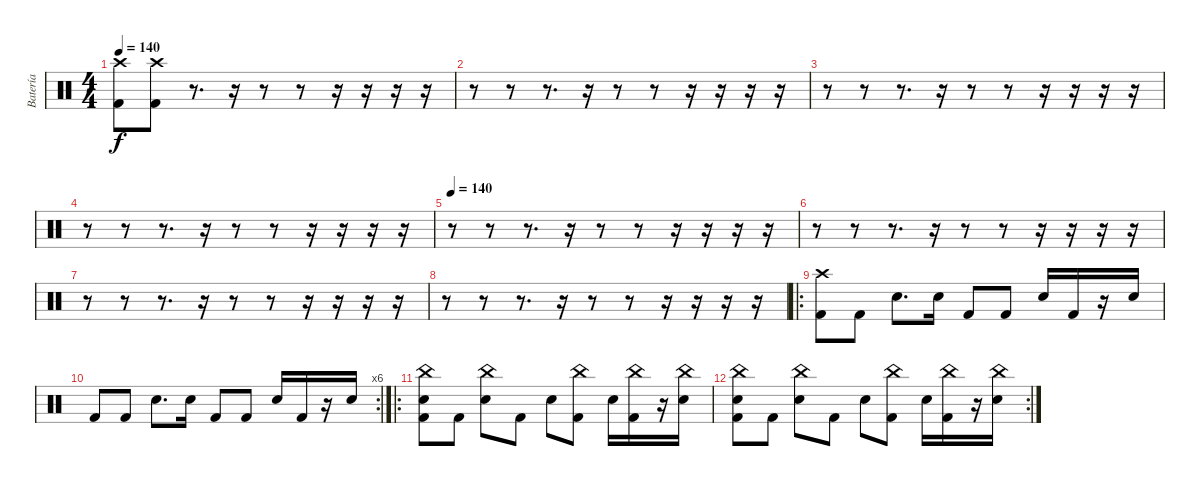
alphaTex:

\track ("Batería" "Batería") {instrument percussion}
\staff {score}
\articulation defaults
\ts (4 4)
\tempo 140
\clef neutral
\ks c
("Crash high (hit)" "Kick (hit) 2").8{dy f} ("Kick (hit) 2" "Crash high (hit)").8 r.8{d} r.16 r.8 r.8 r.16 r.16 r.16 r.16 |
r.8 r.8 r.8{d} r.16 r.8 r.8 r.16 r.16 r.16 r.16 |
r.8 r.8 r.8{d} r.16 r.8 r.8 r.16 r.16 r.16 r.16 |
r.8 r.8 r.8{d} r.16 r.8 r.8 r.16 r.16 r.16 r.16 |
\tempo 140
r.8 r.8 r.8{d} r.16 r.8 r.8 r.16 r.16 r.16 r.16 |
r.8 r.8 r.8{d} r.16 r.8 r.8 r.16 r.16 r.16 r.16 |
r.8 r.8 r.8{d} r.16 r.8 r.8 r.16 r.16 r.16 r.16 |
r.8 r.8 r.8{d} r.16 r.8 r.8 r.16 r.16 r.16 r.16 |
\ro
("Kick (hit) 2" "Crash high (hit)").8 "Kick (hit) 2".8 "Electric Snare (hit)".8{d} "Electric Snare (hit)".16 "Kick (hit) 2".8 "Kick (hit) 2".8 "Electric Snare (hit)".16 "Kick (hit) 2".16 r.16 "Electric Snare (hit)".16 |
\rc 6 "Kick (hit) 2".8 "Kick (hit) 2".8 "Electric Snare (hit)".8{d} "Electric Snare (hit)".16 "Kick (hit) 2".8 "Kick (hit) 2".8 "Electric Snare (hit)".16 "Kick (hit) 2".16
r.16 "Electric Snare (hit)".16 |
\ro
("China (hit)" "Kick (hit) 2" "Electric Snare (hit)").8 "Kick (hit) 2".8 ("China (hit)" "Electric Snare (hit)").8 "Kick (hit) 2".8 "Electric Snare (hit)".8 ("China (hit)" "Kick (hit) 2").8 "Electric Snare (hit)".16 ("China (hit)" "Kick (hit) 2").16 r.16 ("China (hit)" "Electric Snare (hit)").16 |
\rc 2
("China (hit)" "Kick (hit) 2" "Electric Snare (hit)").8 "Kick (hit) 2".8 ("China (hit)" "Electric Snare (hit)").8 "Kick (hit) 2".8 "Electric Snare (hit)".8 ("China (hit)" "Kick (hit) 2").8 "Electric Snare (hit)".16 ("China (hit)" "Kick (hit) 2").16 r.16 ("China (hit)" "Electric Snare (hit)").16
